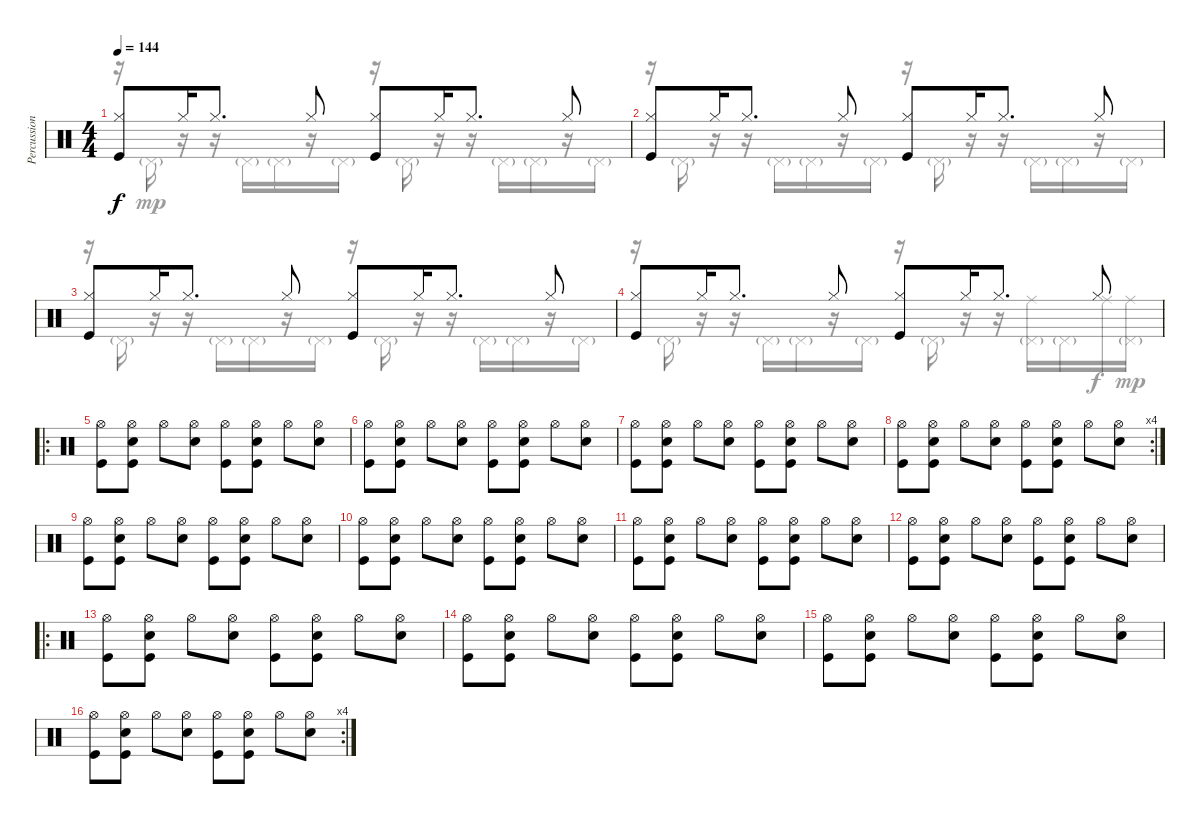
\track ("Percussion" "Percussion") {instrument percussion}
\staff {score}
\articulation defaults
\voice
\ts (4 4)
\tempo 144
\clef neutral
\ks c
("Hi-Hat (closed)" "Kick (hit)").8{dy f} "Hi-Hat (closed)".16 "Hi-Hat (closed)".8{d} "Hi-Hat (closed)".8 ("Hi-Hat (closed)" "Kick (hit)").8 "Hi-Hat (closed)".16 "Hi-Hat (closed)".8{d} "Hi-Hat (closed)".8 |
("Hi-Hat (closed)" "Kick (hit)").8 "Hi-Hat (closed)".16 "Hi-Hat (closed)".8{d} "Hi-Hat (closed)".8 ("Hi-Hat (closed)" "Kick (hit)").8 "Hi-Hat (closed)".16 "Hi-Hat (closed)".8{d} "Hi-Hat (closed)".8 |
("Hi-Hat (closed)" "Kick (hit)").8 "Hi-Hat (closed)".16 "Hi-Hat (closed)".8{d} "Hi-Hat (closed)".8 ("Hi-Hat (closed)" "Kick (hit)").8 "Hi-Hat (closed)".16 "Hi-Hat (closed)".8{d} "Hi-Hat (closed)".8 |
("Hi-Hat (closed)" "Kick (hit)").8 "Hi-Hat (closed)".16 "Hi-Hat (closed)".8{d} "Hi-Hat (closed)".8 ("Hi-Hat (closed)" "Kick (hit)").8 "Hi-Hat (closed)".16 "Hi-Hat (closed)".8{d} "Hi-Hat (closed)".8 |
\ro
("Hi-Hat (open)" "Kick (hit)").8 ("Hi-Hat (open)" "Snare (hit) 2" "Kick (hit)").8 "Hi-Hat (open)".8 ("Hi-Hat (open)" "Snare (hit) 2").8 ("Hi-Hat (open)" "Kick (hit)").8 ("Hi-Hat (open)" "Snare (hit) 2" "Kick (hit)").8 "Hi-Hat (open)".8 ("Hi-Hat (open)" "Snare (hit) 2").8 |
("Hi-Hat (open)" "Kick (hit)").8 ("Hi-Hat (open)" "Snare (hit) 2" "Kick (hit)").8 "Hi-Hat (open)".8 ("Hi-Hat (open)" "Snare (hit) 2").8 ("Hi-Hat (open)" "Kick (hit)").8 ("Hi-Hat (open)" "Snare (hit) 2" "Kick (hit)").8 "Hi-Hat (open)".8 ("Hi-Hat (open)" "Snare (hit) 2").8 |
("Hi-Hat (open)" "Kick (hit)").8 ("Hi-Hat (open)" "Snare (hit) 2" "Kick (hit)").8 "Hi-Hat (open)".8 ("Hi-Hat (open)" "Snare (hit) 2").8 ("Hi-Hat (open)" "Kick (hit)").8 ("Hi-Hat (open)" "Snare (hit) 2" "Kick (hit)").8 "Hi-Hat (open)".8 ("Hi-Hat (open)" "Snare (hit) 2").8 |
\rc 4
("Hi-Hat (open)" "Kick (hit)").8 ("Hi-Hat (open)" "Snare (hit) 2" "Kick (hit)").8 "Hi-Hat (open)".8 ("Hi-Hat (open)" "Snare (hit) 2").8 ("Hi-Hat (open)" "Kick (hit)").8 ("Hi-Hat (open)" "Snare (hit) 2" "Kick (hit)").8 "Hi-Hat (open)".8 ("Hi-Hat (open)" "Snare (hit) 2").8 |
("Hi-Hat (open)" "Kick (hit)").8 ("Hi-Hat (open)" "Snare (hit) 2" "Kick (hit)").8 "Hi-Hat (open)".8 ("Hi-Hat (open)" "Snare (hit) 2").8 ("Hi-Hat (open)" "Kick (hit)").8 ("Hi-Hat (open)" "Snare (hit) 2" "Kick (hit)").8 "Hi-Hat (open)".8 ("Hi-Hat (open)" "Snare (hit) 2").8 |
("Hi-Hat (open)" "Kick (hit)").8 ("Hi-Hat (open)" "Snare (hit) 2" "Kick (hit)").8 "Hi-Hat (open)".8 ("Hi-Hat (open)" "Snare (hit) 2").8 ("Hi-Hat (open)" "Kick (hit)").8 ("Hi-Hat (open)" "Snare (hit) 2" "Kick (hit)").8 "Hi-Hat (open)".8 ("Hi-Hat (open)" "Snare (hit) 2").8 |
("Hi-Hat (open)" "Kick (hit)").8 ("Hi-Hat (open)" "Snare (hit) 2" "Kick (hit)").8 "Hi-Hat (open)".8 ("Hi-Hat (open)" "Snare (hit) 2").8 ("Hi-Hat (open)" "Kick (hit)").8 ("Hi-Hat (open)" "Snare (hit) 2" "Kick (hit)").8 "Hi-Hat (open)".8 ("Hi-Hat (open)" "Snare (hit) 2").8 |
("Hi-Hat (open)" "Kick (hit)").8 ("Hi-Hat (open)" "Snare (hit) 2" "Kick (hit)").8 "Hi-Hat (open)".8 ("Hi-Hat (open)" "Snare (hit) 2").8 ("Hi-Hat (open)" "Kick (hit)").8 ("Hi-Hat (open)" "Snare (hit) 2" "Kick (hit)").8 "Hi-Hat (open)".8 ("Hi-Hat (open)" "Snare (hit) 2").8 |
\ro
("Hi-Hat (open)" "Kick (hit)").8 ("Hi-Hat (open)" "Snare (hit) 2" "Kick (hit)").8 "Hi-Hat (open)".8 ("Hi-Hat (open)" "Snare (hit) 2").8 ("Hi-Hat (open)" "Kick (hit)").8 ("Hi-Hat (open)" "Snare (hit) 2" "Kick (hit)").8 "Hi-Hat (open)".8 ("Hi-Hat (open)" "Snare (hit) 2").8 |
("Hi-Hat (open)" "Kick (hit)").8 ("Hi-Hat (open)" "Snare (hit) 2" "Kick (hit)").8 "Hi-Hat (open)".8 ("Hi-Hat (open)" "Snare (hit) 2").8 ("Hi-Hat (open)" "Kick (hit)").8 ("Hi-Hat (open)" "Snare (hit) 2" "Kick (hit)").8 "Hi-Hat (open)".8 ("Hi-Hat (open)" "Snare (hit) 2").8 |
("Hi-Hat (open)" "Kick (hit)").8 ("Hi-Hat (open)" "Snare (hit) 2" "Kick (hit)").8 "Hi-Hat (open)".8 ("Hi-Hat (open)" "Snare (hit) 2").8 ("Hi-Hat (open)" "Kick (hit)").8 ("Hi-Hat (open)" "Snare (hit) 2" "Kick (hit)").8 "Hi-Hat (open)".8 ("Hi-Hat (open)" "Snare (hit) 2").8 |
\rc 4
("Hi-Hat (open)" "Kick (hit)").8 ("Hi-Hat (open)" "Snare (hit) 2" "Kick (hit)").8 "Hi-Hat (open)".8 ("Hi-Hat (open)" "Snare (hit) 2").8 ("Hi-Hat (open)" "Kick (hit)").8 ("Hi-Hat (open)" "Snare (hit) 2" "Kick (hit)").8 "Hi-Hat (open)".8 ("Hi-Hat (open)" "Snare (hit) 2").8
\voice
\clef neutral
\ottava regular
\simile none
\ks c
r.16{dy mp} "Pedal Hi-Hat (hit)"{g}.16 r.16 r.16 "Pedal Hi-Hat (hit)"{g}.16 "Pedal Hi-Hat (hit)"{g}.16 r.16 "Pedal Hi-Hat (hit)"{g}.16 r.16 "Pedal Hi-Hat (hit)"{g}.16 r.16 r.16 "Pedal Hi-Hat (hit)"{g}.16 "Pedal Hi-Hat (hit)"{g}.16 r.16 "Pedal Hi-Hat (hit)"{g}.16 |
r.16 "Pedal Hi-Hat (hit)"{g}.16 r.16 r.16 "Pedal Hi-Hat (hit)"{g}.16 "Pedal Hi-Hat (hit)"{g}.16 r.16 "Pedal Hi-Hat (hit)"{g}.16 r.16 "Pedal Hi-Hat (hit)"{g}.16 r.16 r.16 "Pedal Hi-Hat (hit)"{g}.16 "Pedal Hi-Hat (hit)"{g}.16 r.16 "Pedal Hi-Hat (hit)"{g}.16 |
r.16 "Pedal Hi-Hat (hit)"{g}.16 r.16 r.16 "Pedal Hi-Hat (hit)"{g}.16 "Pedal Hi-Hat (hit)"{g}.16 r.16 "Pedal Hi-Hat (hit)"{g}.16 r.16 "Pedal Hi-Hat (hit)"{g}.16 r.16 r.16 "Pedal Hi-Hat (hit)"{g}.16 "Pedal Hi-Hat (hit)"{g}.16 r.16 "Pedal Hi-Hat (hit)"{g}.16 |
r.16 "Pedal Hi-Hat (hit)"{g}.16 r.16 r.16 "Pedal Hi-Hat (hit)"{g}.16 "Pedal Hi-Hat (hit)"{g}.16 r.16 "Pedal Hi-Hat (hit)"{g}.16 r.16 "Pedal Hi-Hat (hit)"{g}.16 r.16 r.16 ("Ride (middle)" "Pedal Hi-Hat (hit)"{g}).16 "Pedal Hi-Hat (hit)"{g}.16 "Ride (middle)".16{dy f} ("Ride (middle)" "Pedal Hi-Hat (hit)"{g}).16{dy mp} |
|
|
|
|
|
|
|
|
|
|
|
